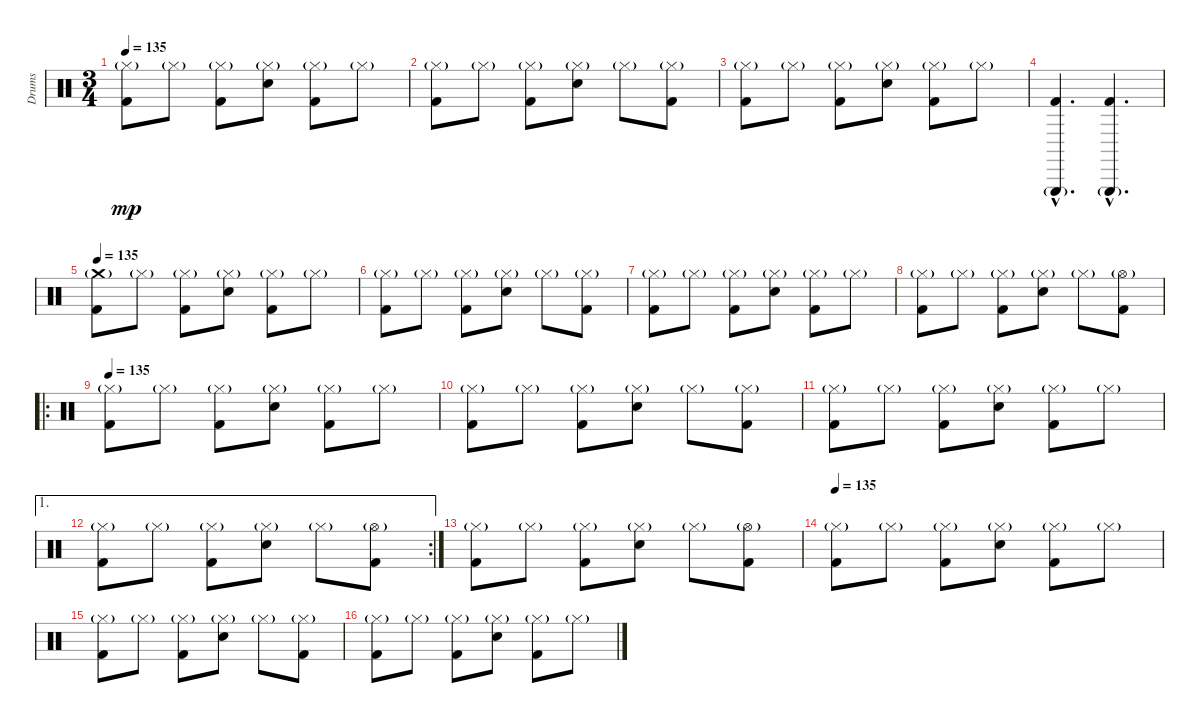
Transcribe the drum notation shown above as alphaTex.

\track ("Drums" "Drums") {instrument percussion}
\staff {score}
\articulation defaults
\ts (3 4)
\tempo 135
\clef neutral
\ks c
("Hi-Hat (closed)"{g} "Kick (hit) 2").8{dy mp} "Hi-Hat (closed)"{g}.8 ("Hi-Hat (closed)"{g} "Kick (hit) 2").8 ("Hi-Hat (closed)"{g} "Electric Snare (hit)").8 ("Hi-Hat (closed)"{g} "Kick (hit) 2").8 "Hi-Hat (closed)"{g}.8 |
("Hi-Hat (closed)"{g} "Kick (hit) 2").8 "Hi-Hat (closed)"{g}.8 ("Hi-Hat (closed)"{g} "Kick (hit) 2").8 ("Hi-Hat (closed)"{g} "Electric Snare (hit)").8 "Hi-Hat (closed)"{g}.8 ("Hi-Hat (closed)"{g} "Kick (hit) 2").8 |
("Hi-Hat (closed)"{g} "Kick (hit) 2").8 "Hi-Hat (closed)"{g}.8 ("Hi-Hat (closed)"{g} "Kick (hit) 2").8 ("Hi-Hat (closed)"{g} "Electric Snare (hit)").8 ("Hi-Hat (closed)"{g} "Kick (hit) 2").8 "Hi-Hat (closed)"{g}.8 |
("Triangle (hit)"{g hac} "Kick (hit) 2"{hac}).4{d} ("Triangle (hit)"{g hac} "Kick (hit) 2"{hac}).4{d} |
\tempo 135
("Crash medium (hit)"{g} "Kick (hit) 2").8 "Hi-Hat (closed)"{g}.8 ("Hi-Hat (closed)"{g} "Kick (hit) 2").8 ("Hi-Hat (closed)"{g} "Electric Snare (hit)").8 ("Hi-Hat (closed)"{g} "Kick (hit) 2").8 "Hi-Hat (closed)"{g}.8 |
("Hi-Hat (closed)"{g} "Kick (hit) 2").8 "Hi-Hat (closed)"{g}.8 ("Hi-Hat (closed)"{g} "Kick (hit) 2").8 ("Hi-Hat (closed)"{g} "Electric Snare (hit)").8 "Hi-Hat (closed)"{g}.8 ("Hi-Hat (closed)"{g} "Kick (hit) 2").8 |
("Hi-Hat (closed)"{g} "Kick (hit) 2").8 "Hi-Hat (closed)"{g}.8 ("Hi-Hat (closed)"{g} "Kick (hit) 2").8 ("Hi-Hat (closed)"{g} "Electric Snare (hit)").8 ("Hi-Hat (closed)"{g} "Kick (hit) 2").8 "Hi-Hat (closed)"{g}.8 |
("Hi-Hat (closed)"{g} "Kick (hit) 2").8 "Hi-Hat (closed)"{g}.8 ("Hi-Hat (closed)"{g} "Kick (hit) 2").8 ("Hi-Hat (closed)"{g} "Electric Snare (hit)").8 "Hi-Hat (closed)"{g}.8 ("Hi-Hat (open)"{g} "Kick (hit) 2").8 |
\ro
\tempo 135
("Hi-Hat (closed)"{g} "Kick (hit) 2").8 "Hi-Hat (closed)"{g}.8 ("Hi-Hat (closed)"{g} "Kick (hit) 2").8 ("Hi-Hat (closed)"{g} "Electric Snare (hit)").8 ("Hi-Hat (closed)"{g} "Kick (hit) 2").8 "Hi-Hat (closed)"{g}.8 |
("Hi-Hat (closed)"{g} "Kick (hit) 2").8 "Hi-Hat (closed)"{g}.8 ("Hi-Hat (closed)"{g} "Kick (hit) 2").8 ("Hi-Hat (closed)"{g} "Electric Snare (hit)").8 "Hi-Hat (closed)"{g}.8 ("Hi-Hat (closed)"{g} "Kick (hit) 2").8 |
("Hi-Hat (closed)"{g} "Kick (hit) 2").8 "Hi-Hat (closed)"{g}.8 ("Hi-Hat (closed)"{g} "Kick (hit) 2").8 ("Hi-Hat (closed)"{g} "Electric Snare (hit)").8 ("Hi-Hat (closed)"{g} "Kick (hit) 2").8 "Hi-Hat (closed)"{g}.8 |
\ae 1
\rc 2
("Hi-Hat (closed)"{g} "Kick (hit) 2").8 "Hi-Hat (closed)"{g}.8 ("Hi-Hat (closed)"{g} "Kick (hit) 2").8 ("Hi-Hat (closed)"{g} "Electric Snare (hit)").8 "Hi-Hat (closed)"{g}.8 ("Hi-Hat (open)"{g} "Kick (hit) 2").8 |
("Hi-Hat (closed)"{g} "Kick (hit) 2").8 "Hi-Hat (closed)"{g}.8 ("Hi-Hat (closed)"{g} "Kick (hit) 2").8 ("Hi-Hat (closed)"{g} "Electric Snare (hit)").8 "Hi-Hat (closed)"{g}.8 ("Hi-Hat (open)"{g} "Kick (hit) 2").8 |
\tempo 135
("Hi-Hat (closed)"{g} "Kick (hit) 2").8 "Hi-Hat (closed)"{g}.8 ("Hi-Hat (closed)"{g} "Kick (hit) 2").8 ("Hi-Hat (closed)"{g} "Electric Snare (hit)").8 ("Hi-Hat (closed)"{g} "Kick (hit) 2").8 "Hi-Hat (closed)"{g}.8 |
("Hi-Hat (closed)"{g} "Kick (hit) 2").8 "Hi-Hat (closed)"{g}.8 ("Hi-Hat (closed)"{g} "Kick (hit) 2").8 ("Hi-Hat (closed)"{g} "Electric Snare (hit)").8 "Hi-Hat (closed)"{g}.8 ("Hi-Hat (closed)"{g} "Kick (hit) 2").8 |
("Hi-Hat (closed)"{g} "Kick (hit) 2").8 "Hi-Hat (closed)"{g}.8 ("Hi-Hat (closed)"{g} "Kick (hit) 2").8 ("Hi-Hat (closed)"{g} "Electric Snare (hit)").8 ("Hi-Hat (closed)"{g} "Kick (hit) 2").8 "Hi-Hat (closed)"{g}.8
